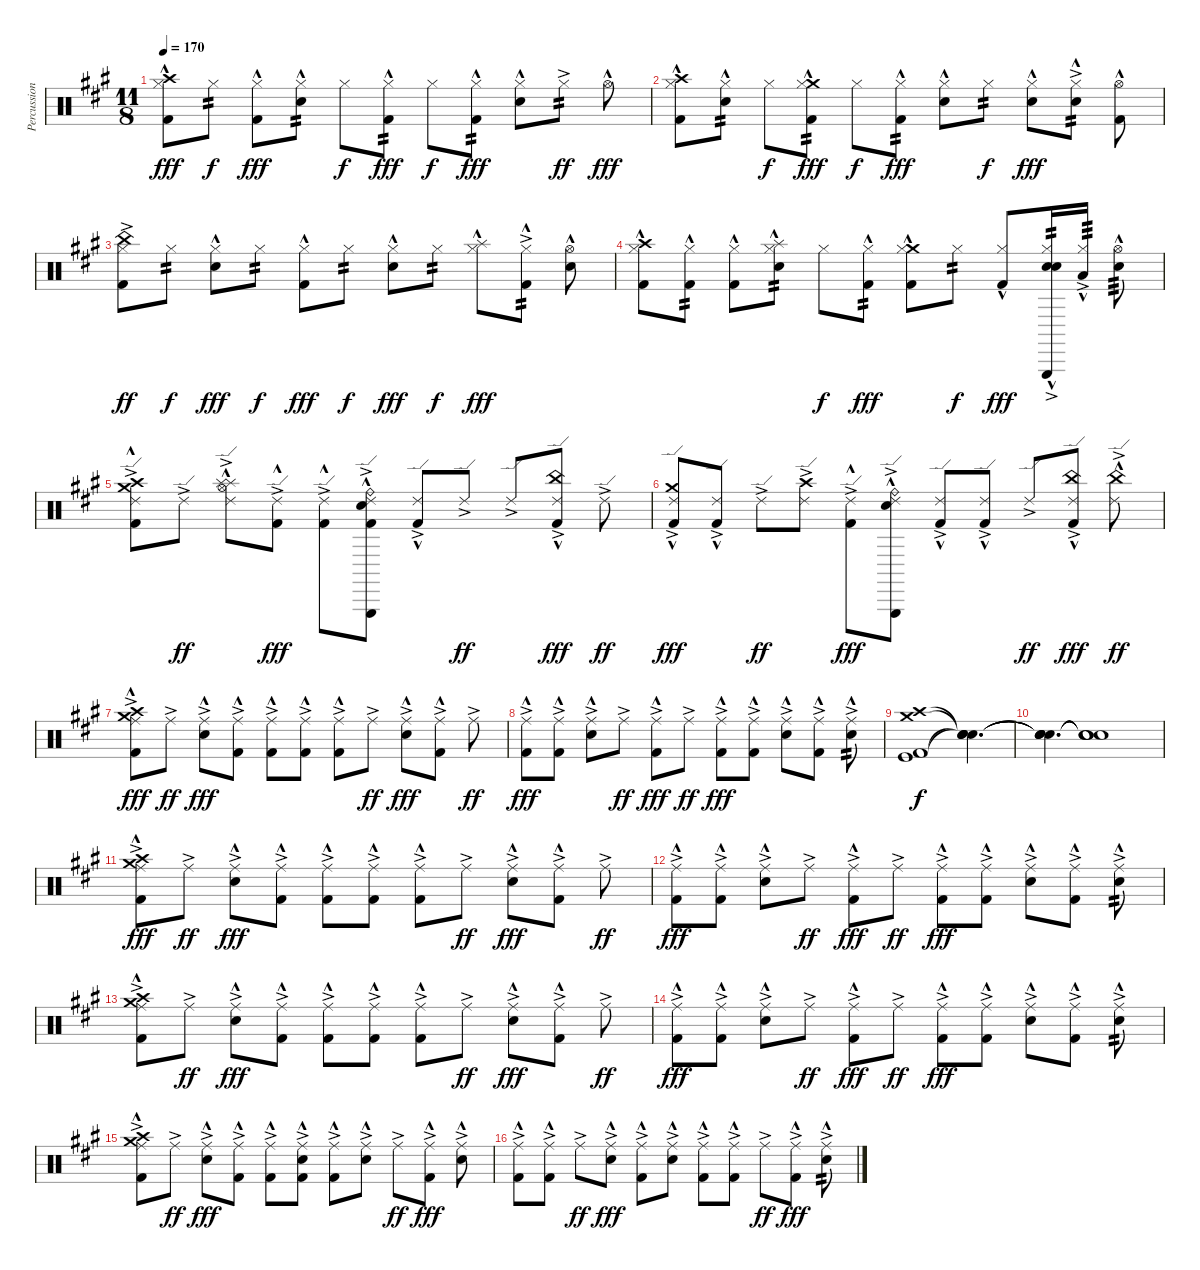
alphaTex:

\track ("Percussion" "Percussion") {instrument percussion}
\staff {score}
\articulation defaults
\ts (11 8)
\tempo 170
\clef neutral
\ks f#minor
("Crash high (hit)" "Hi-Hat (closed)" "Kick (hit) 2"{hac}).8{dy fff} "Hi-Hat (closed)".8{tp 2 dy f} ("Hi-Hat (closed)" "Kick (hit) 2"{hac}).8{dy fff} ("Hi-Hat (closed)" "Electric Snare (hit)"{hac}).8{tp 2} "Hi-Hat (closed)".8{dy f} ("Hi-Hat (closed)" "Kick (hit) 2"{hac}).8{tp 2 dy fff} "Hi-Hat (closed)".8{dy f} ("Hi-Hat (closed)" "Kick (hit) 2"{hac}).8{tp 2 dy fff} ("Hi-Hat (closed)" "Electric Snare (hit)"{hac}).8 "Hi-Hat (closed)"{ac}.8{tp 2 dy ff} "Hi-Hat (open)"{hac}.8{dy fff} |
("Crash high (hit)" "Hi-Hat (closed)" "Kick (hit) 2"{hac}).8 ("Hi-Hat (closed)" "Electric Snare (hit)"{hac}).8{tp 2} "Hi-Hat (closed)".8{dy f} ("Crash medium (hit)" "Hi-Hat (closed)" "Kick (hit) 2"{hac}).8{tp 2 dy fff} "Hi-Hat (closed)".8{dy f} ("Hi-Hat (closed)" "Kick (hit) 2"{hac}).8{tp 2 dy fff} ("Hi-Hat (closed)" "Electric Snare (hit)"{hac}).8 "Hi-Hat (closed)".8{tp 2 dy f} ("Hi-Hat (closed)" "Electric Snare (hit)"{hac}).8{dy fff} ("Hi-Hat (closed)"{ac} "Electric Snare (hit)"{hac}).8{tp 2} ("Hi-Hat (open)"{hac} "Kick (hit) 2"{hac}).8 |
("China (hit)"{ac} "Hi-Hat (closed)" "Kick (hit) 2").8{dy ff} "Hi-Hat (closed)".8{tp 2 dy f} ("Hi-Hat (closed)" "Electric Snare (hit)"{hac}).8{dy fff} "Hi-Hat (closed)".8{tp 2 dy f} ("Hi-Hat (closed)" "Kick (hit) 2"{hac}).8{dy fff} "Hi-Hat (closed)".8{tp 2 dy f} ("Hi-Hat (closed)" "Electric Snare (hit)"{hac}).8{dy fff} "Hi-Hat (closed)".8{tp 2 dy f} ("Splash (hit)"{hac} "Hi-Hat (closed)").8{dy fff} ("Hi-Hat (closed)"{ac} "Kick (hit) 2"{hac}).8{tp 2} ("Hi-Hat (open)"{hac} "Electric Snare (hit)"{hac}).8 |
("Crash high (hit)" "Hi-Hat (closed)" "Kick (hit) 2"{hac}).8 ("Hi-Hat (closed)" "Kick (hit) 2"{hac}).8{tp 2} ("Hi-Hat (closed)" "Kick (hit) 2"{hac}).8 ("Splash (hit)"{hac} "Hi-Hat (closed)" "Electric Snare (hit)"{hac}).8{tp 2} "Hi-Hat (closed)".8{dy f} ("Hi-Hat (closed)" "Kick (hit) 2"{hac}).8{tp 2 dy fff} ("Crash medium (hit)" "Hi-Hat (closed)" "Kick (hit) 2"{hac}).8 "Hi-Hat (closed)".8{tp 2 dy f} ("Hi-Hat (closed)" "Kick (hit) 2"{hac}).8{dy fff} ("Metronome (bell)"{hac} "Triangle (hit)"{hac} "Hi-Hat (closed)"{ac} "Electric Snare (hit)"{hac}).16{tp 2} ("Hi-Hat (closed)"{ac} "Low Tom (hit)"{hac}).16{tp 3} ("Hi-Hat (open)"{hac} "Electric Snare (hit)"{hac}).8{tp 3} |
("Crash medium (hit)"{ac} "Crash high (hit)"{ac} "Ride (edge) 2"{ac} "Kick (hit) 2"{hac}).8 "Ride (edge) 2"{ac}.8{dy ff} ("Splash (hit)"{hac} "Splash (hit)"{hac} "Ride (edge) 2"{ac} "Hi-Hat (open)"{ac}).8 ("Ride (edge) 2"{ac} "Kick (hit) 2"{hac}).8{dy fff} ("Ride (edge) 2"{ac} "Kick (hit) 2"{hac}).8 ("Triangle (hit)"{hac} "Metronome (bell)"{hac} "Ride (edge) 2"{ac} "Ride (bell)"{hac} "Kick (hit) 2"{hac}).8 ("Ride (edge) 2"{ac} "Kick (hit) 2"{hac}).8 "Ride (edge) 2"{ac}.8{dy ff} "Ride (edge) 2"{ac}.8 ("China (hit)"{ac} "Ride (edge) 2"{ac} "Kick (hit) 2"{hac}).8{dy fff} "Ride (edge) 2"{ac}.8{dy ff} |
("Crash medium (hit)" "Ride (edge) 2"{ac} "Kick (hit) 2"{hac}).8{dy fff} ("Ride (edge) 2"{ac} "Kick (hit) 2"{hac}).8 "Ride (edge) 2"{ac}.8{dy ff} ("Crash high (hit)" "Ride (edge) 2"{ac}).8 ("Ride (edge) 2"{ac} "Kick (hit) 2"{hac}).8{dy fff} ("Ride (bell)"{hac} "Metronome (bell)"{hac} "Ride (edge) 2"{ac} "Triangle (hit)"{hac}).8 ("Ride (edge) 2"{ac} "Kick (hit) 2"{hac}).8 ("Ride (edge) 2"{ac} "Kick (hit) 2"{hac}).8 "Ride (edge) 2"{ac}.8{dy ff} ("China (hit)"{ac} "Ride (edge) 2"{ac} "Kick (hit) 2"{hac}).8{dy fff} ("China (hit)"{hac} "Ride (edge) 2"{ac}).8{dy ff} |
("Crash medium (hit)"{ac} "Crash high (hit)"{ac} "Ride (middle)"{ac} "Kick (hit) 2"{hac}).8{dy fff} "Ride (middle)"{ac}.8{dy ff} ("Ride (middle)"{ac} "Electric Snare (hit)"{hac}).8{dy fff} ("Ride (middle)"{ac} "Kick (hit) 2"{hac}).8 ("Ride (middle)"{ac} "Kick (hit) 2"{hac}).8 ("Ride (middle)"{ac} "Kick (hit) 2"{hac}).8 ("Ride (middle)"{ac} "Kick (hit) 2"{hac}).8 "Ride (middle)"{ac}.8{dy ff} ("Ride (middle)"{ac} "Electric Snare (hit)"{hac}).8{dy fff} ("Ride (middle)"{ac} "Kick (hit) 2"{hac}).8 "Ride (middle)"{ac}.8{dy ff} |
("Ride (middle)"{ac} "Kick (hit) 2"{hac}).8{dy fff} ("Ride (middle)"{ac} "Kick (hit) 2"{hac}).8 ("Ride (middle)"{ac} "Electric Snare (hit)"{hac}).8 "Ride (middle)"{ac}.8{dy ff} ("Ride (middle)"{ac} "Kick (hit) 2"{hac}).8{dy fff} "Ride (middle)"{ac}.8{dy ff} ("Ride (middle)"{ac} "Kick (hit) 2"{hac}).8{dy fff} ("Ride (middle)"{ac} "Kick (hit) 2"{hac}).8 ("Ride (middle)"{ac} "Electric Snare (hit)"{hac}).8 ("Ride (middle)"{ac} "Kick (hit) 2"{hac}).8 ("Ride (middle)"{ac} "Electric Snare (hit)"{hac}).8{tp 2} |
("Crash medium (hit)" "Crash high (hit)" "Kick (hit) 2" "Kick (hit)").1{dy f} ("Snare (hit)"{t} "Snare (hit)"{t} "Snare (hit)"{t} "Snare (hit)"{t}).4{d} |
("Snare (hit)"{t} "Snare (hit)"{t} "Snare (hit)"{t} "Snare (hit)"{t}).4{d} ("Snare (hit)"{t} "Snare (hit)"{t} "Snare (hit)"{t} "Snare (hit)"{t}).1 |
("Crash medium (hit)"{ac} "Crash high (hit)"{ac} "Ride (middle)"{ac} "Kick (hit) 2"{hac}).8{dy fff} "Ride (middle)"{ac}.8{dy ff} ("Ride (middle)"{ac} "Electric Snare (hit)"{hac}).8{dy fff} ("Ride (middle)"{ac} "Kick (hit) 2"{hac}).8 ("Ride (middle)"{ac} "Kick (hit) 2"{hac}).8 ("Ride (middle)"{ac} "Kick (hit) 2"{hac}).8 ("Ride (middle)"{ac} "Kick (hit) 2"{hac}).8 "Ride (middle)"{ac}.8{dy ff} ("Ride (middle)"{ac} "Electric Snare (hit)"{hac}).8{dy fff} ("Ride (middle)"{ac} "Kick (hit) 2"{hac}).8 "Ride (middle)"{ac}.8{dy ff} |
("Ride (middle)"{ac} "Kick (hit) 2"{hac}).8{dy fff} ("Ride (middle)"{ac} "Kick (hit) 2"{hac}).8 ("Ride (middle)"{ac} "Electric Snare (hit)"{hac}).8 "Ride (middle)"{ac}.8{dy ff} ("Ride (middle)"{ac} "Kick (hit) 2"{hac}).8{dy fff} "Ride (middle)"{ac}.8{dy ff} ("Ride (middle)"{ac} "Kick (hit) 2"{hac}).8{dy fff} ("Ride (middle)"{ac} "Kick (hit) 2"{hac}).8 ("Ride (middle)"{ac} "Electric Snare (hit)"{hac}).8 ("Ride (middle)"{ac} "Kick (hit) 2"{hac}).8 ("Ride (middle)"{ac} "Electric Snare (hit)"{hac}).8{tp 2} |
("Crash medium (hit)"{ac} "Crash high (hit)"{ac} "Ride (middle)"{ac} "Kick (hit) 2"{hac}).8 "Ride (middle)"{ac}.8{dy ff} ("Ride (middle)"{ac} "Electric Snare (hit)"{hac}).8{dy fff} ("Ride (middle)"{ac} "Kick (hit) 2"{hac}).8 ("Ride (middle)"{ac} "Kick (hit) 2"{hac}).8 ("Ride (middle)"{ac} "Kick (hit) 2"{hac}).8 ("Ride (middle)"{ac} "Kick (hit) 2"{hac}).8 "Ride (middle)"{ac}.8{dy ff} ("Ride (middle)"{ac} "Electric Snare (hit)"{hac}).8{dy fff} ("Ride (middle)"{ac} "Kick (hit) 2"{hac}).8 "Ride (middle)"{ac}.8{dy ff} |
("Ride (middle)"{ac} "Kick (hit) 2"{hac}).8{dy fff} ("Ride (middle)"{ac} "Kick (hit) 2"{hac}).8 ("Ride (middle)"{ac} "Electric Snare (hit)"{hac}).8 "Ride (middle)"{ac}.8{dy ff} ("Ride (middle)"{ac} "Kick (hit) 2"{hac}).8{dy fff} "Ride (middle)"{ac}.8{dy ff} ("Ride (middle)"{ac} "Kick (hit) 2"{hac}).8{dy fff} ("Ride (middle)"{ac} "Kick (hit) 2"{hac}).8 ("Ride (middle)"{ac} "Electric Snare (hit)"{hac}).8 ("Ride (middle)"{ac} "Kick (hit) 2"{hac}).8 ("Ride (middle)"{ac} "Electric Snare (hit)"{hac}).8{tp 2} |
("Crash medium (hit)"{ac} "Crash high (hit)"{ac} "Ride (middle)"{ac} "Kick (hit) 2"{hac}).8 "Ride (middle)"{ac}.8{dy ff} ("Ride (middle)"{ac} "Electric Snare (hit)"{hac}).8{dy fff} ("Ride (middle)"{ac} "Kick (hit) 2"{hac}).8 ("Ride (middle)"{ac} "Kick (hit) 2"{hac}).8 ("Ride (middle)"{ac} "Electric Snare (hit)"{hac} "Kick (hit) 2"{hac}).8 ("Ride (middle)"{ac} "Kick (hit) 2"{hac}).8 ("Ride (middle)"{ac} "Electric Snare (hit)"{hac}).8 "Ride (middle)"{ac}.8{dy ff} ("Ride (middle)"{ac} "Kick (hit) 2"{hac}).8{dy fff} ("Ride (middle)"{ac} "Electric Snare (hit)"{hac}).8 |
("Ride (middle)"{ac} "Kick (hit) 2"{hac}).8 ("Ride (middle)"{ac} "Kick (hit) 2"{hac}).8 "Ride (middle)"{ac}.8{dy ff} ("Ride (middle)"{ac} "Electric Snare (hit)"{hac}).8{dy fff} ("Ride (middle)"{ac} "Kick (hit) 2"{hac}).8 ("Ride (middle)"{ac} "Electric Snare (hit)"{hac}).8 ("Ride (middle)"{ac} "Kick (hit) 2"{hac}).8 ("Ride (middle)"{ac} "Kick (hit) 2"{hac}).8 "Ride (middle)"{ac}.8{dy ff} ("Ride (middle)"{ac} "Kick (hit) 2"{hac}).8{dy fff} ("Ride (middle)"{ac} "Electric Snare (hit)"{hac}).8{tp 2}
